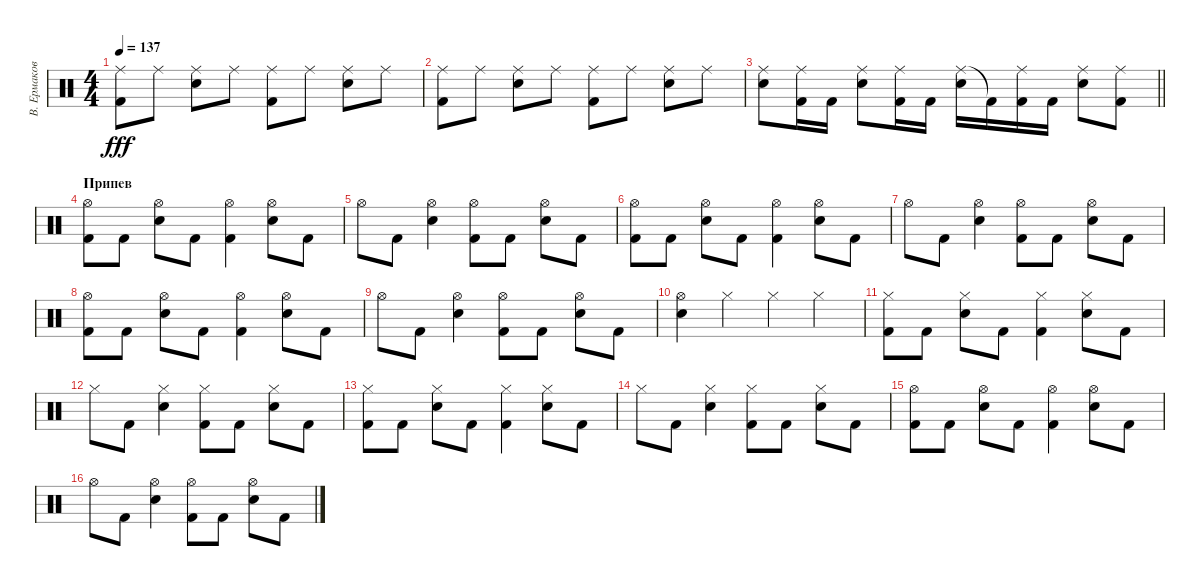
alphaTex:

\track ("В. Ермаков" "В. Ермаков") {instrument percussion}
\staff {score}
\articulation defaults
\ts (4 4)
\tempo 137
\clef neutral
\ks c
("Ride (middle)" "Kick (hit) 2").8{dy fff} "Ride (middle)".8 ("Ride (middle)" "Snare (hit) 2").8 "Ride (middle)".8 ("Ride (middle)" "Kick (hit) 2").8 "Ride (middle)".8 ("Ride (middle)" "Snare (hit) 2").8 "Ride (middle)".8 |
("Ride (middle)" "Kick (hit) 2").8 "Ride (middle)".8 ("Ride (middle)" "Snare (hit) 2").8 "Ride (middle)".8 ("Ride (middle)" "Kick (hit) 2").8 "Ride (middle)".8 ("Ride (middle)" "Snare (hit) 2").8 "Ride (middle)".8 |
\barLineRight lightlight
("Ride (middle)" "Snare (hit) 2").8 ("Ride (middle)" "Kick (hit) 2").16 "Kick (hit) 2".16 ("Ride (middle)" "Snare (hit) 2").8 ("Ride (middle)" "Kick (hit) 2").16 "Kick (hit) 2".16 ("Ride (middle)" "Snare (hit) 2").16 "Kick (hit) 2"{t}.16 ("Ride (middle)" "Kick (hit) 2").16 "Kick (hit) 2".16 ("Ride (middle)" "Snare (hit) 2").8 ("Ride (middle)" "Kick (hit) 2").8 |
\section ("" "Припев")
("Kick (hit) 2" "Hi-Hat (open)").8 "Kick (hit) 2".8 ("Snare (hit) 2" "Hi-Hat (open)").8 "Kick (hit) 2".8 ("Kick (hit) 2" "Hi-Hat (open)").4 ("Snare (hit) 2" "Hi-Hat (open)").8 "Kick (hit) 2".8 |
"Hi-Hat (open)".8 "Kick (hit) 2".8 ("Hi-Hat (open)" "Snare (hit) 2").4 ("Hi-Hat (open)" "Kick (hit) 2").8 "Kick (hit) 2".8 ("Hi-Hat (open)" "Snare (hit) 2").8 "Kick (hit) 2".8 |
("Kick (hit) 2" "Hi-Hat (open)").8 "Kick (hit) 2".8 ("Snare (hit) 2" "Hi-Hat (open)").8 "Kick (hit) 2".8 ("Kick (hit) 2" "Hi-Hat (open)").4 ("Snare (hit) 2" "Hi-Hat (open)").8 "Kick (hit) 2".8 |
"Hi-Hat (open)".8 "Kick (hit) 2".8 ("Hi-Hat (open)" "Snare (hit) 2").4 ("Hi-Hat (open)" "Kick (hit) 2").8 "Kick (hit) 2".8 ("Hi-Hat (open)" "Snare (hit) 2").8 "Kick (hit) 2".8 |
("Kick (hit) 2" "Hi-Hat (open)").8 "Kick (hit) 2".8 ("Snare (hit) 2" "Hi-Hat (open)").8 "Kick (hit) 2".8 ("Kick (hit) 2" "Hi-Hat (open)").4 ("Snare (hit) 2" "Hi-Hat (open)").8 "Kick (hit) 2".8 |
"Hi-Hat (open)".8 "Kick (hit) 2".8 ("Hi-Hat (open)" "Snare (hit) 2").4 ("Hi-Hat (open)" "Kick (hit) 2").8 "Kick (hit) 2".8 ("Hi-Hat (open)" "Snare (hit) 2").8 "Kick (hit) 2".8 |
("Hi-Hat (open)" "Snare (hit) 2").4 "Hi-Hat (closed)".4 "Hi-Hat (closed)".4 "Hi-Hat (closed)".4 |
("Kick (hit) 2" "Hi-Hat (closed)").8 "Kick (hit) 2".8 ("Snare (hit) 2" "Hi-Hat (closed)").8 "Kick (hit) 2".8 ("Kick (hit) 2" "Hi-Hat (closed)").4 ("Snare (hit) 2" "Hi-Hat (closed)").8 "Kick (hit) 2".8 |
"Hi-Hat (closed)".8 "Kick (hit) 2".8 ("Hi-Hat (closed)" "Snare (hit) 2").4 ("Hi-Hat (closed)" "Kick (hit) 2").8 "Kick (hit) 2".8 ("Hi-Hat (closed)" "Snare (hit) 2").8 "Kick (hit) 2".8 |
("Kick (hit) 2" "Hi-Hat (closed)").8 "Kick (hit) 2".8 ("Snare (hit) 2" "Hi-Hat (closed)").8 "Kick (hit) 2".8 ("Kick (hit) 2" "Hi-Hat (closed)").4 ("Snare (hit) 2" "Hi-Hat (closed)").8 "Kick (hit) 2".8 |
"Hi-Hat (closed)".8 "Kick (hit) 2".8 ("Hi-Hat (closed)" "Snare (hit) 2").4 ("Hi-Hat (closed)" "Kick (hit) 2").8 "Kick (hit) 2".8 ("Hi-Hat (closed)" "Snare (hit) 2").8 "Kick (hit) 2".8 |
("Kick (hit) 2" "Hi-Hat (open)").8 "Kick (hit) 2".8 ("Snare (hit) 2" "Hi-Hat (open)").8 "Kick (hit) 2".8 ("Kick (hit) 2" "Hi-Hat (open)").4 ("Snare (hit) 2" "Hi-Hat (open)").8 "Kick (hit) 2".8 |
"Hi-Hat (open)".8 "Kick (hit) 2".8 ("Hi-Hat (open)" "Snare (hit) 2").4 ("Hi-Hat (open)" "Kick (hit) 2").8 "Kick (hit) 2".8 ("Hi-Hat (open)" "Snare (hit) 2").8 "Kick (hit) 2".8
